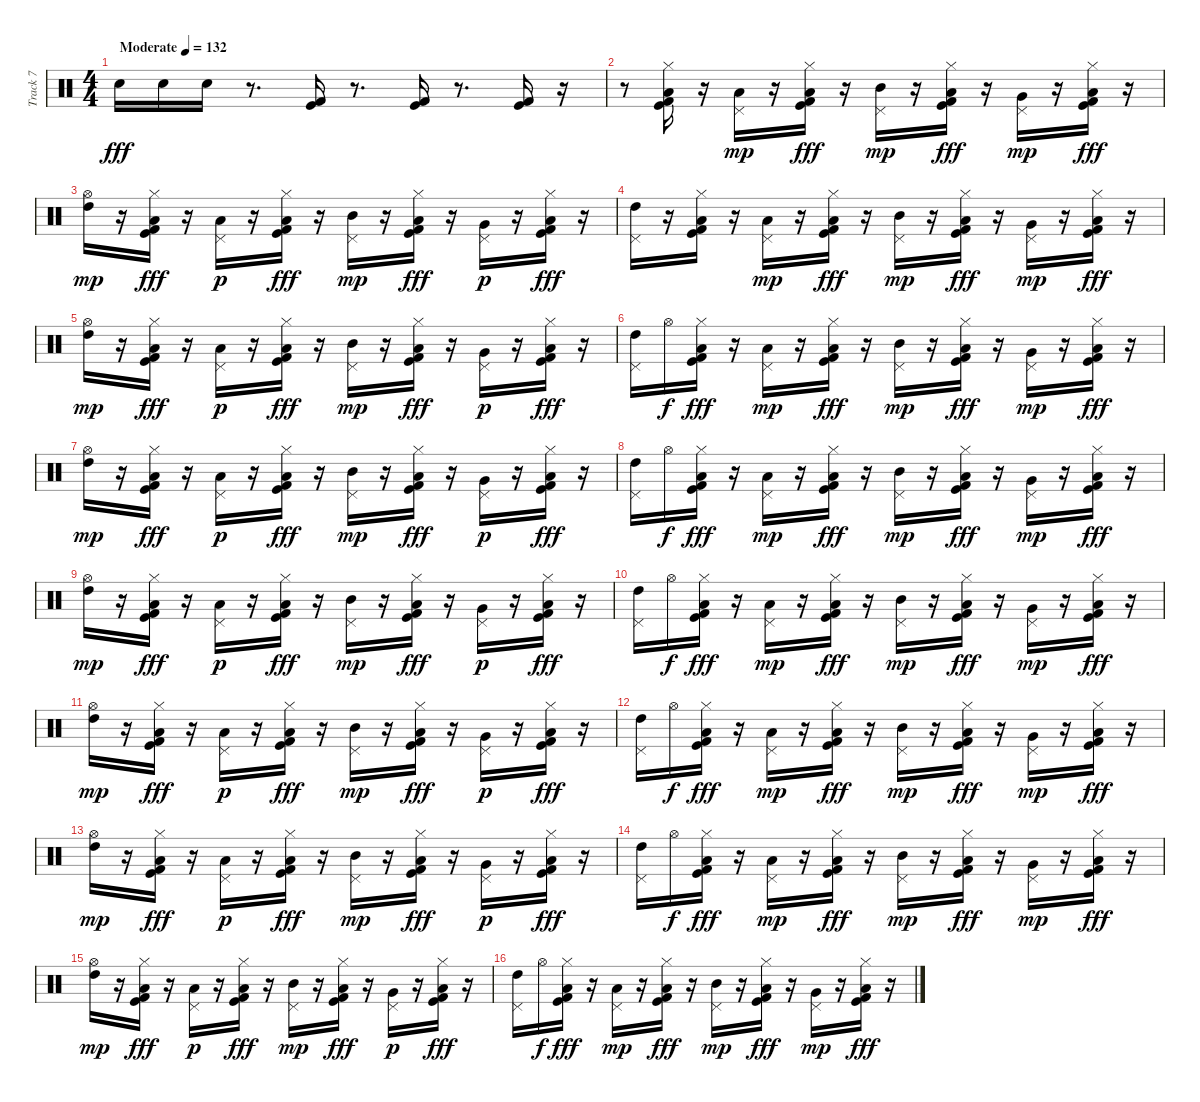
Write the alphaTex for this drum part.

\track ("Track 7" "Track 7") {instrument percussion}
\staff {score}
\articulation defaults
\ts (4 4)
\tempo (132 "Moderate")
\clef neutral
\ks c "Electric Snare (hit)".16{dy fff} "Electric Snare (hit)".16 "Electric Snare (hit)".16
r.8{d} ("Kick (hit) 2" "Kick (hit)").16 r.8{d} ("Kick (hit)" "Kick (hit) 2").16 r.8{d} ("Kick (hit)" "Kick (hit) 2").16 r.16 |
r.8 ("Low Floor Tom (hit)" "Hi-Hat (closed)" "Kick (hit)" "Kick (hit) 2").16 r.16 ("Low Tom (hit)" "Pedal Hi-Hat (hit)").16{dy mp} r.16 ("Low Floor Tom (hit)" "Hi-Hat (closed)" "Kick (hit)" "Kick (hit) 2").16{dy fff} r.16 ("Mid Tom (hit)" "Pedal Hi-Hat (hit)").16{dy mp} r.16 ("Low Floor Tom (hit)" "Hi-Hat (closed)" "Kick (hit)" "Kick (hit) 2").16{dy fff} r.16 ("Very Low Tom (hit)" "Pedal Hi-Hat (hit)").16{dy mp} r.16 ("Low Floor Tom (hit)" "Hi-Hat (closed)" "Kick (hit)" "Kick (hit) 2").16{dy fff} r.16 |
("High Tom (hit)" "Hi-Hat (open)").16{dy mp} r.16 ("Low Floor Tom (hit)" "Hi-Hat (closed)" "Kick (hit) 2" "Kick (hit)").16{dy fff} r.16 ("Low Tom (hit)" "Pedal Hi-Hat (hit)").16{dy p} r.16 ("Low Floor Tom (hit)" "Hi-Hat (closed)" "Kick (hit) 2" "Kick (hit)").16{dy fff} r.16 ("Mid Tom (hit)" "Pedal Hi-Hat (hit)").16{dy mp} r.16 ("Low Floor Tom (hit)" "Hi-Hat (closed)" "Kick (hit) 2" "Kick (hit)").16{dy fff} r.16 ("Very Low Tom (hit)" "Pedal Hi-Hat (hit)").16{dy p} r.16 ("Low Floor Tom (hit)" "Hi-Hat (closed)" "Kick (hit) 2" "Kick (hit)").16{dy fff} r.16 |
("High Tom (hit)" "Pedal Hi-Hat (hit)").16 r.16 ("Low Floor Tom (hit)" "Hi-Hat (closed)" "Kick (hit)" "Kick (hit) 2").16 r.16 ("Low Tom (hit)" "Pedal Hi-Hat (hit)").16{dy mp} r.16 ("Low Floor Tom (hit)" "Hi-Hat (closed)" "Kick (hit)" "Kick (hit) 2").16{dy fff} r.16 ("Mid Tom (hit)" "Pedal Hi-Hat (hit)").16{dy mp} r.16 ("Low Floor Tom (hit)" "Hi-Hat (closed)" "Kick (hit)" "Kick (hit) 2").16{dy fff} r.16 ("Very Low Tom (hit)" "Pedal Hi-Hat (hit)").16{dy mp} r.16 ("Low Floor Tom (hit)" "Hi-Hat (closed)" "Kick (hit)" "Kick (hit) 2").16{dy fff} r.16 |
("High Tom (hit)" "Hi-Hat (open)").16{dy mp} r.16 ("Low Floor Tom (hit)" "Hi-Hat (closed)" "Kick (hit) 2" "Kick (hit)").16{dy fff} r.16 ("Low Tom (hit)" "Pedal Hi-Hat (hit)").16{dy p} r.16 ("Low Floor Tom (hit)" "Hi-Hat (closed)" "Kick (hit) 2" "Kick (hit)").16{dy fff} r.16 ("Mid Tom (hit)" "Pedal Hi-Hat (hit)").16{dy mp} r.16 ("Low Floor Tom (hit)" "Hi-Hat (closed)" "Kick (hit) 2" "Kick (hit)").16{dy fff} r.16 ("Very Low Tom (hit)" "Pedal Hi-Hat (hit)").16{dy p} r.16 ("Low Floor Tom (hit)" "Hi-Hat (closed)" "Kick (hit) 2" "Kick (hit)").16{dy fff} r.16 |
("High Tom (hit)" "Pedal Hi-Hat (hit)").16 "Hi-Hat (open)".16{dy f} ("Low Floor Tom (hit)" "Hi-Hat (closed)" "Kick (hit)" "Kick (hit) 2").16{dy fff} r.16 ("Low Tom (hit)" "Pedal Hi-Hat (hit)").16{dy mp} r.16 ("Low Floor Tom (hit)" "Hi-Hat (closed)" "Kick (hit)" "Kick (hit) 2").16{dy fff} r.16 ("Mid Tom (hit)" "Pedal Hi-Hat (hit)").16{dy mp} r.16 ("Low Floor Tom (hit)" "Hi-Hat (closed)" "Kick (hit)" "Kick (hit) 2").16{dy fff} r.16 ("Very Low Tom (hit)" "Pedal Hi-Hat (hit)").16{dy mp} r.16 ("Low Floor Tom (hit)" "Hi-Hat (closed)" "Kick (hit)" "Kick (hit) 2").16{dy fff} r.16 |
("High Tom (hit)" "Hi-Hat (open)").16{dy mp} r.16 ("Low Floor Tom (hit)" "Hi-Hat (closed)" "Kick (hit) 2" "Kick (hit)").16{dy fff} r.16 ("Low Tom (hit)" "Pedal Hi-Hat (hit)").16{dy p} r.16 ("Low Floor Tom (hit)" "Hi-Hat (closed)" "Kick (hit) 2" "Kick (hit)").16{dy fff} r.16 ("Mid Tom (hit)" "Pedal Hi-Hat (hit)").16{dy mp} r.16 ("Low Floor Tom (hit)" "Hi-Hat (closed)" "Kick (hit) 2" "Kick (hit)").16{dy fff} r.16 ("Very Low Tom (hit)" "Pedal Hi-Hat (hit)").16{dy p} r.16 ("Low Floor Tom (hit)" "Hi-Hat (closed)" "Kick (hit) 2" "Kick (hit)").16{dy fff} r.16 |
("High Tom (hit)" "Pedal Hi-Hat (hit)").16 "Hi-Hat (open)".16{dy f} ("Low Floor Tom (hit)" "Hi-Hat (closed)" "Kick (hit)" "Kick (hit) 2").16{dy fff} r.16 ("Low Tom (hit)" "Pedal Hi-Hat (hit)").16{dy mp} r.16 ("Low Floor Tom (hit)" "Hi-Hat (closed)" "Kick (hit)" "Kick (hit) 2").16{dy fff} r.16 ("Mid Tom (hit)" "Pedal Hi-Hat (hit)").16{dy mp} r.16 ("Low Floor Tom (hit)" "Hi-Hat (closed)" "Kick (hit)" "Kick (hit) 2").16{dy fff} r.16 ("Very Low Tom (hit)" "Pedal Hi-Hat (hit)").16{dy mp} r.16 ("Low Floor Tom (hit)" "Hi-Hat (closed)" "Kick (hit)" "Kick (hit) 2").16{dy fff} r.16 |
("High Tom (hit)" "Hi-Hat (open)").16{dy mp} r.16 ("Low Floor Tom (hit)" "Hi-Hat (closed)" "Kick (hit) 2" "Kick (hit)").16{dy fff} r.16 ("Low Tom (hit)" "Pedal Hi-Hat (hit)").16{dy p} r.16 ("Low Floor Tom (hit)" "Hi-Hat (closed)" "Kick (hit) 2" "Kick (hit)").16{dy fff} r.16 ("Mid Tom (hit)" "Pedal Hi-Hat (hit)").16{dy mp} r.16 ("Low Floor Tom (hit)" "Hi-Hat (closed)" "Kick (hit) 2" "Kick (hit)").16{dy fff} r.16 ("Very Low Tom (hit)" "Pedal Hi-Hat (hit)").16{dy p} r.16 ("Low Floor Tom (hit)" "Hi-Hat (closed)" "Kick (hit) 2" "Kick (hit)").16{dy fff} r.16 |
("High Tom (hit)" "Pedal Hi-Hat (hit)").16 "Hi-Hat (open)".16{dy f} ("Low Floor Tom (hit)" "Hi-Hat (closed)" "Kick (hit)" "Kick (hit) 2").16{dy fff} r.16 ("Low Tom (hit)" "Pedal Hi-Hat (hit)").16{dy mp} r.16 ("Low Floor Tom (hit)" "Hi-Hat (closed)" "Kick (hit)" "Kick (hit) 2").16{dy fff} r.16 ("Mid Tom (hit)" "Pedal Hi-Hat (hit)").16{dy mp} r.16 ("Low Floor Tom (hit)" "Hi-Hat (closed)" "Kick (hit)" "Kick (hit) 2").16{dy fff} r.16 ("Very Low Tom (hit)" "Pedal Hi-Hat (hit)").16{dy mp} r.16 ("Low Floor Tom (hit)" "Hi-Hat (closed)" "Kick (hit)" "Kick (hit) 2").16{dy fff} r.16 |
("High Tom (hit)" "Hi-Hat (open)").16{dy mp} r.16 ("Low Floor Tom (hit)" "Hi-Hat (closed)" "Kick (hit) 2" "Kick (hit)").16{dy fff} r.16 ("Low Tom (hit)" "Pedal Hi-Hat (hit)").16{dy p} r.16 ("Low Floor Tom (hit)" "Hi-Hat (closed)" "Kick (hit) 2" "Kick (hit)").16{dy fff} r.16 ("Mid Tom (hit)" "Pedal Hi-Hat (hit)").16{dy mp} r.16 ("Low Floor Tom (hit)" "Hi-Hat (closed)" "Kick (hit) 2" "Kick (hit)").16{dy fff} r.16 ("Very Low Tom (hit)" "Pedal Hi-Hat (hit)").16{dy p} r.16 ("Low Floor Tom (hit)" "Hi-Hat (closed)" "Kick (hit) 2" "Kick (hit)").16{dy fff} r.16 |
("High Tom (hit)" "Pedal Hi-Hat (hit)").16 "Hi-Hat (open)".16{dy f} ("Low Floor Tom (hit)" "Hi-Hat (closed)" "Kick (hit)" "Kick (hit) 2").16{dy fff} r.16 ("Low Tom (hit)" "Pedal Hi-Hat (hit)").16{dy mp} r.16 ("Low Floor Tom (hit)" "Hi-Hat (closed)" "Kick (hit)" "Kick (hit) 2").16{dy fff} r.16 ("Mid Tom (hit)" "Pedal Hi-Hat (hit)").16{dy mp} r.16 ("Low Floor Tom (hit)" "Hi-Hat (closed)" "Kick (hit)" "Kick (hit) 2").16{dy fff} r.16 ("Very Low Tom (hit)" "Pedal Hi-Hat (hit)").16{dy mp} r.16 ("Low Floor Tom (hit)" "Hi-Hat (closed)" "Kick (hit)" "Kick (hit) 2").16{dy fff} r.16 |
("High Tom (hit)" "Hi-Hat (open)").16{dy mp} r.16 ("Low Floor Tom (hit)" "Hi-Hat (closed)" "Kick (hit) 2" "Kick (hit)").16{dy fff} r.16 ("Low Tom (hit)" "Pedal Hi-Hat (hit)").16{dy p} r.16 ("Low Floor Tom (hit)" "Hi-Hat (closed)" "Kick (hit) 2" "Kick (hit)").16{dy fff} r.16 ("Mid Tom (hit)" "Pedal Hi-Hat (hit)").16{dy mp} r.16 ("Low Floor Tom (hit)" "Hi-Hat (closed)" "Kick (hit) 2" "Kick (hit)").16{dy fff} r.16 ("Very Low Tom (hit)" "Pedal Hi-Hat (hit)").16{dy p} r.16 ("Low Floor Tom (hit)" "Hi-Hat (closed)" "Kick (hit) 2" "Kick (hit)").16{dy fff} r.16 |
("High Tom (hit)" "Pedal Hi-Hat (hit)").16 "Hi-Hat (open)".16{dy f} ("Low Floor Tom (hit)" "Hi-Hat (closed)" "Kick (hit)" "Kick (hit) 2").16{dy fff} r.16 ("Low Tom (hit)" "Pedal Hi-Hat (hit)").16{dy mp} r.16 ("Low Floor Tom (hit)" "Hi-Hat (closed)" "Kick (hit)" "Kick (hit) 2").16{dy fff} r.16 ("Mid Tom (hit)" "Pedal Hi-Hat (hit)").16{dy mp} r.16 ("Low Floor Tom (hit)" "Hi-Hat (closed)" "Kick (hit)" "Kick (hit) 2").16{dy fff} r.16 ("Very Low Tom (hit)" "Pedal Hi-Hat (hit)").16{dy mp} r.16 ("Low Floor Tom (hit)" "Hi-Hat (closed)" "Kick (hit)" "Kick (hit) 2").16{dy fff} r.16 |
("High Tom (hit)" "Hi-Hat (open)").16{dy mp} r.16 ("Low Floor Tom (hit)" "Hi-Hat (closed)" "Kick (hit) 2" "Kick (hit)").16{dy fff} r.16 ("Low Tom (hit)" "Pedal Hi-Hat (hit)").16{dy p} r.16 ("Low Floor Tom (hit)" "Hi-Hat (closed)" "Kick (hit) 2" "Kick (hit)").16{dy fff} r.16 ("Mid Tom (hit)" "Pedal Hi-Hat (hit)").16{dy mp} r.16 ("Low Floor Tom (hit)" "Hi-Hat (closed)" "Kick (hit) 2" "Kick (hit)").16{dy fff} r.16 ("Very Low Tom (hit)" "Pedal Hi-Hat (hit)").16{dy p} r.16 ("Low Floor Tom (hit)" "Hi-Hat (closed)" "Kick (hit) 2" "Kick (hit)").16{dy fff} r.16 |
("High Tom (hit)" "Pedal Hi-Hat (hit)").16 "Hi-Hat (open)".16{dy f} ("Low Floor Tom (hit)" "Hi-Hat (closed)" "Kick (hit)" "Kick (hit) 2").16{dy fff} r.16 ("Low Tom (hit)" "Pedal Hi-Hat (hit)").16{dy mp} r.16 ("Low Floor Tom (hit)" "Hi-Hat (closed)" "Kick (hit)" "Kick (hit) 2").16{dy fff} r.16 ("Mid Tom (hit)" "Pedal Hi-Hat (hit)").16{dy mp} r.16 ("Low Floor Tom (hit)" "Hi-Hat (closed)" "Kick (hit)" "Kick (hit) 2").16{dy fff} r.16 ("Very Low Tom (hit)" "Pedal Hi-Hat (hit)").16{dy mp} r.16 ("Low Floor Tom (hit)" "Hi-Hat (closed)" "Kick (hit)" "Kick (hit) 2").16{dy fff} r.16
